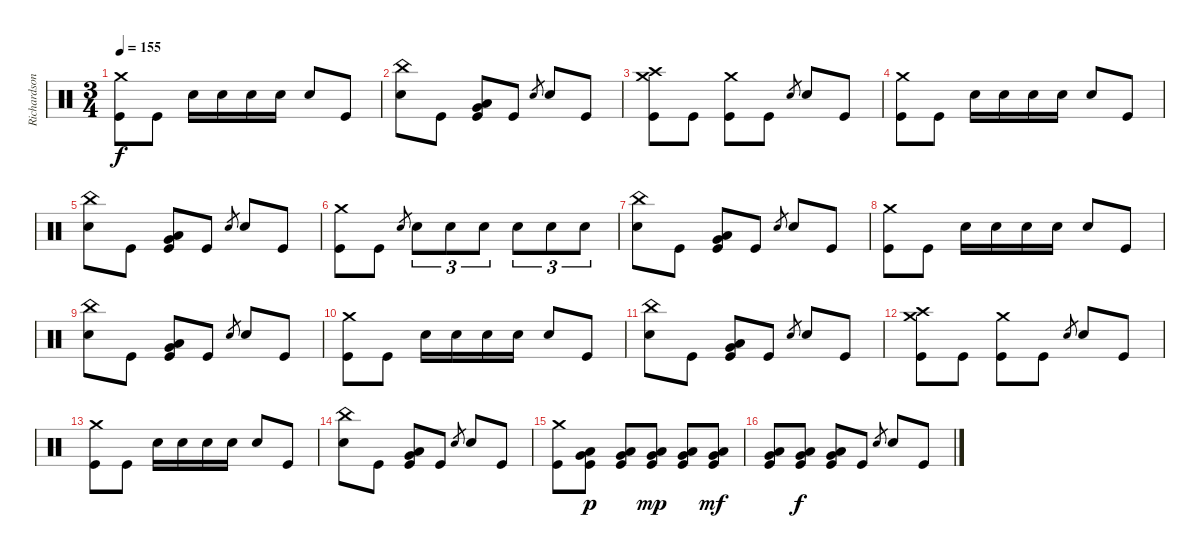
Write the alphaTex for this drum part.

\track ("Richardson" "Richardson") {instrument percussion}
\staff {score}
\articulation defaults
\ts (3 4)
\tempo 155
\clef neutral
\ks c
("Crash medium (hit)" "Kick (hit)").8{dy f} "Kick (hit)".8 "Electric Snare (hit)".16 "Electric Snare (hit)".16 "Electric Snare (hit)".16 "Electric Snare (hit)".16 "Electric Snare (hit)".8 "Kick (hit)".8 |
("China (hit)" "Electric Snare (hit)").8 "Kick (hit)".8 ("Low Tom (hit)" "Very Low Tom (hit)" "Kick (hit)").8 "Kick (hit)".8 "Electric Snare (hit)".8{gr} "Electric Snare (hit)".8 "Kick (hit)".8 |
("Crash medium (hit)" "Crash high (hit)" "Kick (hit)").8 "Kick (hit)".8 ("Crash medium (hit)" "Kick (hit)").8 "Kick (hit)".8 "Electric Snare (hit)".8{gr} "Electric Snare (hit)".8 "Kick (hit)".8 |
("Crash medium (hit)" "Kick (hit)").8 "Kick (hit)".8 "Electric Snare (hit)".16 "Electric Snare (hit)".16 "Electric Snare (hit)".16 "Electric Snare (hit)".16 "Electric Snare (hit)".8 "Kick (hit)".8 |
("China (hit)" "Electric Snare (hit)").8 "Kick (hit)".8 ("Low Tom (hit)" "Very Low Tom (hit)" "Kick (hit)").8 "Kick (hit)".8 "Electric Snare (hit)".8{gr} "Electric Snare (hit)".8 "Kick (hit)".8 |
("Crash medium (hit)" "Kick (hit)").8 "Kick (hit)".8 "Electric Snare (hit)".8{gr} "Electric Snare (hit)".8{tu (3 2)} "Electric Snare (hit)".8{tu (3 2)} "Electric Snare (hit)".8{tu (3 2)} "Electric Snare (hit)".8{tu (3 2)} "Electric Snare (hit)".8{tu (3 2)} "Electric Snare (hit)".8{tu (3 2)} |
("China (hit)" "Electric Snare (hit)").8 "Kick (hit)".8 ("Low Tom (hit)" "Very Low Tom (hit)" "Kick (hit)").8 "Kick (hit)".8 "Electric Snare (hit)".8{gr} "Electric Snare (hit)".8 "Kick (hit)".8 |
("Crash medium (hit)" "Kick (hit)").8 "Kick (hit)".8 "Electric Snare (hit)".16 "Electric Snare (hit)".16 "Electric Snare (hit)".16 "Electric Snare (hit)".16 "Electric Snare (hit)".8 "Kick (hit)".8 |
("China (hit)" "Electric Snare (hit)").8 "Kick (hit)".8 ("Low Tom (hit)" "Very Low Tom (hit)" "Kick (hit)").8 "Kick (hit)".8 "Electric Snare (hit)".8{gr} "Electric Snare (hit)".8 "Kick (hit)".8 |
("Crash medium (hit)" "Kick (hit)").8 "Kick (hit)".8 "Electric Snare (hit)".16 "Electric Snare (hit)".16 "Electric Snare (hit)".16 "Electric Snare (hit)".16 "Electric Snare (hit)".8 "Kick (hit)".8 |
("China (hit)" "Electric Snare (hit)").8 "Kick (hit)".8 ("Low Tom (hit)" "Very Low Tom (hit)" "Kick (hit)").8 "Kick (hit)".8 "Electric Snare (hit)".8{gr} "Electric Snare (hit)".8 "Kick (hit)".8 |
("Crash medium (hit)" "Crash high (hit)" "Kick (hit)").8 "Kick (hit)".8 ("Crash medium (hit)" "Kick (hit)").8 "Kick (hit)".8 "Electric Snare (hit)".8{gr} "Electric Snare (hit)".8 "Kick (hit)".8 |
("Crash medium (hit)" "Kick (hit)").8 "Kick (hit)".8 "Electric Snare (hit)".16 "Electric Snare (hit)".16 "Electric Snare (hit)".16 "Electric Snare (hit)".16 "Electric Snare (hit)".8 "Kick (hit)".8 |
("China (hit)" "Electric Snare (hit)").8 "Kick (hit)".8 ("Low Tom (hit)" "Very Low Tom (hit)" "Kick (hit)").8 "Kick (hit)".8 "Electric Snare (hit)".8{gr} "Electric Snare (hit)".8 "Kick (hit)".8 |
("Crash medium (hit)" "Kick (hit)").8 ("Low Tom (hit)" "Very Low Tom (hit)" "Kick (hit)").8{dy p} ("Low Tom (hit)" "Very Low Tom (hit)" "Kick (hit)").8 ("Low Tom (hit)" "Very Low Tom (hit)" "Kick (hit)").8{dy mp} ("Low Tom (hit)" "Very Low Tom (hit)" "Kick (hit)").8 ("Low Tom (hit)" "Very Low Tom (hit)" "Kick (hit)").8{dy mf} |
("Low Tom (hit)" "Very Low Tom (hit)" "Kick (hit)").8 ("Low Tom (hit)" "Very Low Tom (hit)" "Kick (hit)").8{dy f} ("Low Tom (hit)" "Very Low Tom (hit)" "Kick (hit)").8 "Kick (hit)".8 "Electric Snare (hit)".8{gr} "Electric Snare (hit)".8 "Kick (hit)".8
